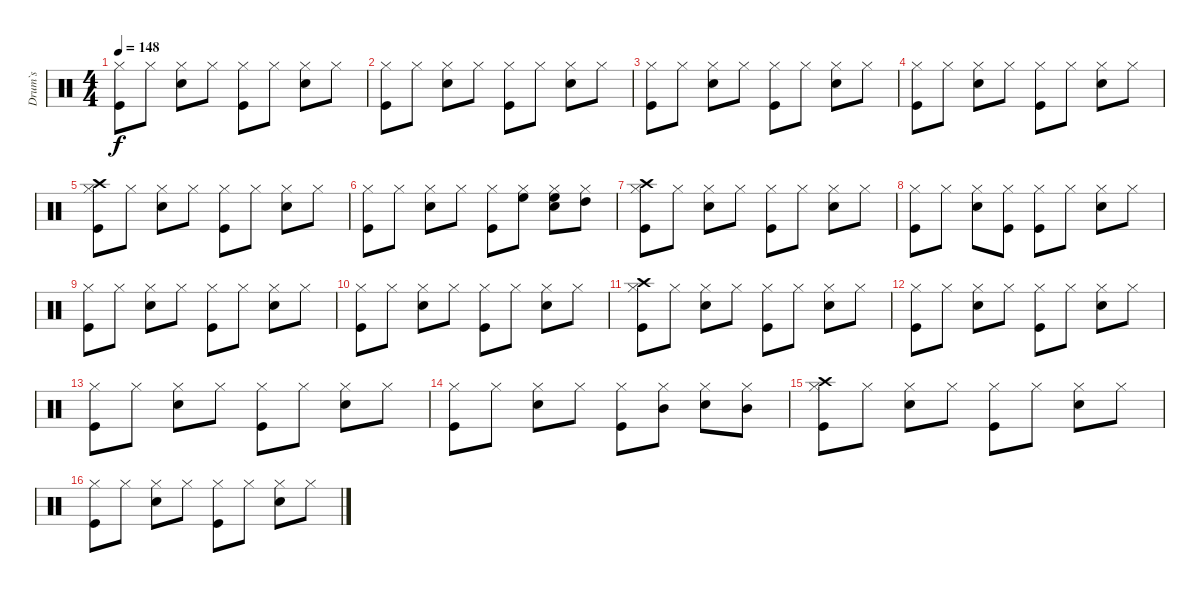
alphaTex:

\track ("Drum`s" "Drum`s") {instrument percussion}
\staff {score}
\articulation defaults
\ts (4 4)
\tempo 148
\clef neutral
\ks c
("Hi-Hat (closed)" "Kick (hit)").8{dy f} "Hi-Hat (closed)".8 ("Hi-Hat (closed)" "Snare (hit) 2").8 "Hi-Hat (closed)".8 ("Hi-Hat (closed)" "Kick (hit)").8 "Hi-Hat (closed)".8 ("Hi-Hat (closed)" "Snare (hit) 2").8 "Hi-Hat (closed)".8 |
("Hi-Hat (closed)" "Kick (hit)").8 "Hi-Hat (closed)".8 ("Hi-Hat (closed)" "Snare (hit) 2").8 "Hi-Hat (closed)".8 ("Hi-Hat (closed)" "Kick (hit)").8 "Hi-Hat (closed)".8 ("Hi-Hat (closed)" "Snare (hit) 2").8 "Hi-Hat (closed)".8 |
("Hi-Hat (closed)" "Kick (hit)").8 "Hi-Hat (closed)".8 ("Hi-Hat (closed)" "Snare (hit) 2").8 "Hi-Hat (closed)".8 ("Hi-Hat (closed)" "Kick (hit)").8 "Hi-Hat (closed)".8 ("Hi-Hat (closed)" "Snare (hit) 2").8 "Hi-Hat (closed)".8 |
("Hi-Hat (closed)" "Kick (hit)").8 "Hi-Hat (closed)".8 ("Hi-Hat (closed)" "Snare (hit) 2").8 "Hi-Hat (closed)".8 ("Hi-Hat (closed)" "Kick (hit)").8 "Hi-Hat (closed)".8 ("Hi-Hat (closed)" "Snare (hit) 2").8 "Hi-Hat (closed)".8 |
("Crash high (hit)" "Hi-Hat (closed)" "Kick (hit)").8 "Hi-Hat (closed)".8 ("Hi-Hat (closed)" "Snare (hit) 2").8 "Hi-Hat (closed)".8 ("Hi-Hat (closed)" "Kick (hit)").8 "Hi-Hat (closed)".8 ("Hi-Hat (closed)" "Snare (hit) 2").8 "Hi-Hat (closed)".8 |
("Hi-Hat (closed)" "Kick (hit)").8 "Hi-Hat (closed)".8 ("Hi-Hat (closed)" "Snare (hit) 2").8 "Hi-Hat (closed)".8 ("Hi-Hat (closed)" "Kick (hit)").8 ("High Floor Tom (hit)" "Hi-Hat (closed)").8 ("High Floor Tom (hit)" "Hi-Hat (closed)" "Snare (hit) 2").8 ("High Tom (hit)" "Hi-Hat (closed)").8 |
("Crash high (hit)" "Hi-Hat (closed)" "Kick (hit)").8 "Hi-Hat (closed)".8 ("Hi-Hat (closed)" "Snare (hit) 2").8 "Hi-Hat (closed)".8 ("Hi-Hat (closed)" "Kick (hit)").8 "Hi-Hat (closed)".8 ("Hi-Hat (closed)" "Snare (hit) 2").8 "Hi-Hat (closed)".8 |
("Hi-Hat (closed)" "Kick (hit)").8 "Hi-Hat (closed)".8 ("Hi-Hat (closed)" "Snare (hit) 2").8 ("Kick (hit)" "Hi-Hat (closed)").8 ("Hi-Hat (closed)" "Kick (hit)").8 "Hi-Hat (closed)".8 ("Hi-Hat (closed)" "Snare (hit) 2").8 "Hi-Hat (closed)".8 |
("Hi-Hat (closed)" "Kick (hit)").8 "Hi-Hat (closed)".8 ("Hi-Hat (closed)" "Snare (hit) 2").8 "Hi-Hat (closed)".8 ("Hi-Hat (closed)" "Kick (hit)").8 "Hi-Hat (closed)".8 ("Hi-Hat (closed)" "Snare (hit) 2").8 "Hi-Hat (closed)".8 |
("Hi-Hat (closed)" "Kick (hit)").8 "Hi-Hat (closed)".8 ("Hi-Hat (closed)" "Snare (hit) 2").8 "Hi-Hat (closed)".8 ("Hi-Hat (closed)" "Kick (hit)").8 "Hi-Hat (closed)".8 ("Hi-Hat (closed)" "Snare (hit) 2").8 "Hi-Hat (closed)".8 |
("Crash high (hit)" "Hi-Hat (closed)" "Kick (hit)").8 "Hi-Hat (closed)".8 ("Hi-Hat (closed)" "Snare (hit) 2").8 "Hi-Hat (closed)".8 ("Hi-Hat (closed)" "Kick (hit)").8 "Hi-Hat (closed)".8 ("Hi-Hat (closed)" "Snare (hit) 2").8 "Hi-Hat (closed)".8 |
("Hi-Hat (closed)" "Kick (hit)").8 "Hi-Hat (closed)".8 ("Hi-Hat (closed)" "Snare (hit) 2").8 "Hi-Hat (closed)".8 ("Hi-Hat (closed)" "Kick (hit)").8 "Hi-Hat (closed)".8 ("Hi-Hat (closed)" "Snare (hit) 2").8 "Hi-Hat (closed)".8 |
("Hi-Hat (closed)" "Kick (hit)").8 "Hi-Hat (closed)".8 ("Hi-Hat (closed)" "Snare (hit) 2").8 "Hi-Hat (closed)".8 ("Hi-Hat (closed)" "Kick (hit)").8 "Hi-Hat (closed)".8 ("Hi-Hat (closed)" "Snare (hit) 2").8 "Hi-Hat (closed)".8 |
("Hi-Hat (closed)" "Kick (hit)").8 "Hi-Hat (closed)".8 ("Hi-Hat (closed)" "Snare (hit) 2").8 "Hi-Hat (closed)".8 ("Hi-Hat (closed)" "Kick (hit)").8 ("Mid Tom (hit)" "Hi-Hat (closed)").8 ("Hi-Hat (closed)" "Snare (hit) 2").8 ("Mid Tom (hit)" "Hi-Hat (closed)").8 |
("Crash high (hit)" "Hi-Hat (closed)" "Kick (hit)").8 "Hi-Hat (closed)".8 ("Hi-Hat (closed)" "Snare (hit) 2").8 "Hi-Hat (closed)".8 ("Hi-Hat (closed)" "Kick (hit)").8 "Hi-Hat (closed)".8 ("Hi-Hat (closed)" "Snare (hit) 2").8 "Hi-Hat (closed)".8 |
("Hi-Hat (closed)" "Kick (hit)").8 "Hi-Hat (closed)".8 ("Hi-Hat (closed)" "Snare (hit) 2").8 "Hi-Hat (closed)".8 ("Hi-Hat (closed)" "Kick (hit)").8 "Hi-Hat (closed)".8 ("Hi-Hat (closed)" "Snare (hit) 2").8 "Hi-Hat (closed)".8
